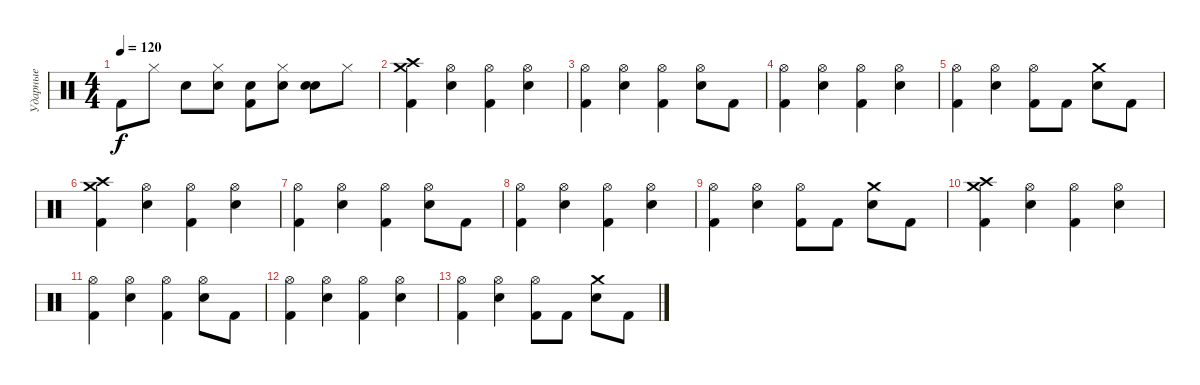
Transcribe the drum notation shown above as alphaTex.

\track ("Ударные" "Ударные") {instrument percussion}
\staff {score}
\articulation defaults
\ts (4 4)
\tempo 120
\clef neutral
\ks c "Kick (hit) 2".8{dy f} "Hi-Hat (closed)".8 "Electric Snare (hit)".8
("Hi-Hat (closed)" "Electric Snare (hit)").8 ("Kick (hit) 2" "Electric Snare (hit)").8 ("Hi-Hat (closed)" "Electric Snare (hit)").8 ("Electric Snare (hit)" "Electric Snare (hit)").8 "Hi-Hat (closed)".8 |
("Crash high (hit)" "Crash medium (hit)" "Kick (hit) 2").4 ("Hi-Hat (open)" "Electric Snare (hit)").4 ("Hi-Hat (open)" "Kick (hit) 2").4 ("Hi-Hat (open)" "Electric Snare (hit)").4 |
("Hi-Hat (open)" "Kick (hit) 2").4 ("Hi-Hat (open)" "Electric Snare (hit)").4 ("Hi-Hat (open)" "Kick (hit) 2").4 ("Hi-Hat (open)" "Electric Snare (hit)").8 "Kick (hit) 2".8 |
("Hi-Hat (open)" "Kick (hit) 2").4 ("Hi-Hat (open)" "Electric Snare (hit)").4 ("Hi-Hat (open)" "Kick (hit) 2").4 ("Hi-Hat (open)" "Electric Snare (hit)").4 |
("Hi-Hat (open)" "Kick (hit) 2").4 ("Hi-Hat (open)" "Electric Snare (hit)").4 ("Hi-Hat (open)" "Kick (hit) 2").8 "Kick (hit) 2".8 ("Crash medium (hit)" "Electric Snare (hit)").8 "Kick (hit) 2".8 |
("Crash high (hit)" "Crash medium (hit)" "Kick (hit) 2").4 ("Hi-Hat (open)" "Electric Snare (hit)").4 ("Hi-Hat (open)" "Kick (hit) 2").4 ("Hi-Hat (open)" "Electric Snare (hit)").4 |
("Hi-Hat (open)" "Kick (hit) 2").4 ("Hi-Hat (open)" "Electric Snare (hit)").4 ("Hi-Hat (open)" "Kick (hit) 2").4 ("Hi-Hat (open)" "Electric Snare (hit)").8 "Kick (hit) 2".8 |
("Hi-Hat (open)" "Kick (hit) 2").4 ("Hi-Hat (open)" "Electric Snare (hit)").4 ("Hi-Hat (open)" "Kick (hit) 2").4 ("Hi-Hat (open)" "Electric Snare (hit)").4 |
("Hi-Hat (open)" "Kick (hit) 2").4 ("Hi-Hat (open)" "Electric Snare (hit)").4 ("Hi-Hat (open)" "Kick (hit) 2").8 "Kick (hit) 2".8 ("Crash medium (hit)" "Electric Snare (hit)").8 "Kick (hit) 2".8 |
("Crash high (hit)" "Crash medium (hit)" "Kick (hit) 2").4 ("Hi-Hat (open)" "Electric Snare (hit)").4 ("Hi-Hat (open)" "Kick (hit) 2").4 ("Hi-Hat (open)" "Electric Snare (hit)").4 |
("Hi-Hat (open)" "Kick (hit) 2").4 ("Hi-Hat (open)" "Electric Snare (hit)").4 ("Hi-Hat (open)" "Kick (hit) 2").4 ("Hi-Hat (open)" "Electric Snare (hit)").8 "Kick (hit) 2".8 |
("Hi-Hat (open)" "Kick (hit) 2").4 ("Hi-Hat (open)" "Electric Snare (hit)").4 ("Hi-Hat (open)" "Kick (hit) 2").4 ("Hi-Hat (open)" "Electric Snare (hit)").4 |
("Hi-Hat (open)" "Kick (hit) 2").4 ("Hi-Hat (open)" "Electric Snare (hit)").4 ("Hi-Hat (open)" "Kick (hit) 2").8 "Kick (hit) 2".8 ("Crash medium (hit)" "Electric Snare (hit)").8 "Kick (hit) 2".8
